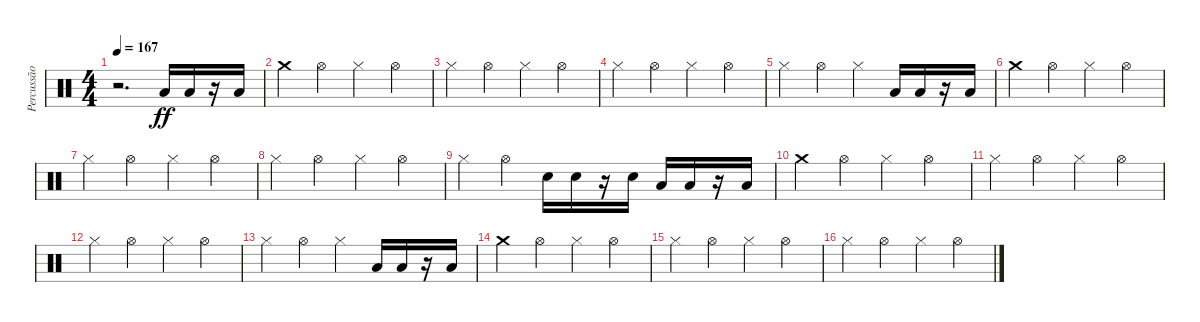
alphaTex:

\track ("Percussão" "Percussão") {instrument percussion}
\staff {score}
\articulation defaults
\ts (4 4)
\tempo 167
\clef neutral
\ks c
r.2{d dy ff} "Low Tom (hit)".16 "Low Tom (hit)".16 r.16 "Low Tom (hit)".16 |
"Crash medium (hit)".4 "Hi-Hat (open)".4 "Hi-Hat (closed)".4 "Hi-Hat (open)".4 |
"Hi-Hat (closed)".4 "Hi-Hat (open)".4 "Hi-Hat (closed)".4 "Hi-Hat (open)".4 |
"Hi-Hat (closed)".4 "Hi-Hat (open)".4 "Hi-Hat (closed)".4 "Hi-Hat (open)".4 |
"Hi-Hat (closed)".4 "Hi-Hat (open)".4 "Hi-Hat (closed)".4 "Low Tom (hit)".16 "Low Tom (hit)".16 r.16 "Low Tom (hit)".16 |
"Crash medium (hit)".4 "Hi-Hat (open)".4 "Hi-Hat (closed)".4 "Hi-Hat (open)".4 |
"Hi-Hat (closed)".4 "Hi-Hat (open)".4 "Hi-Hat (closed)".4 "Hi-Hat (open)".4 |
"Hi-Hat (closed)".4 "Hi-Hat (open)".4 "Hi-Hat (closed)".4 "Hi-Hat (open)".4 |
"Hi-Hat (closed)".4 "Hi-Hat (open)".4 "Electric Snare (hit)".16 "Electric Snare (hit)".16 r.16 "Electric Snare (hit)".16 "Low Tom (hit)".16 "Low Tom (hit)".16 r.16 "Low Tom (hit)".16 |
"Crash medium (hit)".4 "Hi-Hat (open)".4 "Hi-Hat (closed)".4 "Hi-Hat (open)".4 |
"Hi-Hat (closed)".4 "Hi-Hat (open)".4 "Hi-Hat (closed)".4 "Hi-Hat (open)".4 |
"Hi-Hat (closed)".4 "Hi-Hat (open)".4 "Hi-Hat (closed)".4 "Hi-Hat (open)".4 |
"Hi-Hat (closed)".4 "Hi-Hat (open)".4 "Hi-Hat (closed)".4 "Low Tom (hit)".16 "Low Tom (hit)".16 r.16 "Low Tom (hit)".16 |
"Crash medium (hit)".4 "Hi-Hat (open)".4 "Hi-Hat (closed)".4 "Hi-Hat (open)".4 |
"Hi-Hat (closed)".4 "Hi-Hat (open)".4 "Hi-Hat (closed)".4 "Hi-Hat (open)".4 |
"Hi-Hat (closed)".4 "Hi-Hat (open)".4 "Hi-Hat (closed)".4 "Hi-Hat (open)".4
